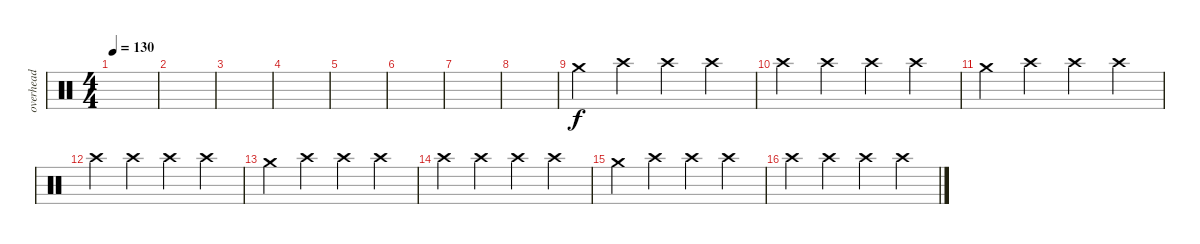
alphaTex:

\track ("overhead " "overhead ") {instrument percussion}
\staff {score}
\articulation defaults
\ts (4 4)
\tempo 130
\clef neutral
\ks c
|
|
|
|
|
|
|
|
"Crash medium (hit)".4 "Crash high (hit)".4 "Crash high (hit)".4 "Crash high (hit)".4 |
"Crash high (hit)".4 "Crash high (hit)".4 "Crash high (hit)".4 "Crash high (hit)".4 |
"Crash medium (hit)".4 "Crash high (hit)".4 "Crash high (hit)".4 "Crash high (hit)".4 |
"Crash high (hit)".4 "Crash high (hit)".4 "Crash high (hit)".4 "Crash high (hit)".4 |
"Crash medium (hit)".4 "Crash high (hit)".4 "Crash high (hit)".4 "Crash high (hit)".4 |
"Crash high (hit)".4 "Crash high (hit)".4 "Crash high (hit)".4 "Crash high (hit)".4 |
"Crash medium (hit)".4 "Crash high (hit)".4 "Crash high (hit)".4 "Crash high (hit)".4 |
"Crash high (hit)".4 "Crash high (hit)".4 "Crash high (hit)".4 "Crash high (hit)".4
